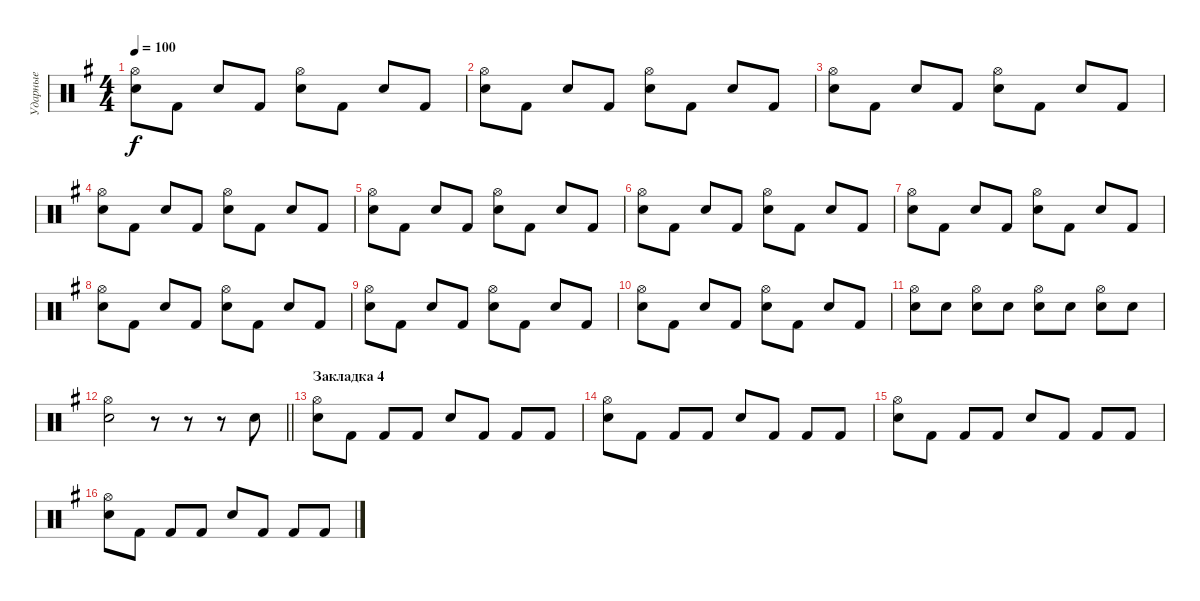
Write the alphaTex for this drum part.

\track ("Ударные" "Ударные") {instrument percussion}
\staff {score}
\articulation defaults
\ts (4 4)
\tempo 100
\clef neutral
\ks g
("Hi-Hat (open)" "Snare (hit) 2").8{dy f} "Kick (hit) 2".8 "Electric Snare (hit)".8 "Kick (hit) 2".8 ("Hi-Hat (open)" "Snare (hit) 2").8 "Kick (hit) 2".8 "Electric Snare (hit)".8 "Kick (hit) 2".8 |
("Hi-Hat (open)" "Snare (hit) 2").8 "Kick (hit) 2".8 "Electric Snare (hit)".8 "Kick (hit) 2".8 ("Hi-Hat (open)" "Snare (hit) 2").8 "Kick (hit) 2".8 "Electric Snare (hit)".8 "Kick (hit) 2".8 |
("Hi-Hat (open)" "Snare (hit) 2").8 "Kick (hit) 2".8 "Electric Snare (hit)".8 "Kick (hit) 2".8 ("Hi-Hat (open)" "Snare (hit) 2").8 "Kick (hit) 2".8 "Electric Snare (hit)".8 "Kick (hit) 2".8 |
("Hi-Hat (open)" "Snare (hit) 2").8 "Kick (hit) 2".8 "Electric Snare (hit)".8 "Kick (hit) 2".8 ("Hi-Hat (open)" "Snare (hit) 2").8 "Kick (hit) 2".8 "Electric Snare (hit)".8 "Kick (hit) 2".8 |
("Hi-Hat (open)" "Snare (hit) 2").8 "Kick (hit) 2".8 "Electric Snare (hit)".8 "Kick (hit) 2".8 ("Hi-Hat (open)" "Snare (hit) 2").8 "Kick (hit) 2".8 "Electric Snare (hit)".8 "Kick (hit) 2".8 |
("Hi-Hat (open)" "Snare (hit) 2").8 "Kick (hit) 2".8 "Electric Snare (hit)".8 "Kick (hit) 2".8 ("Hi-Hat (open)" "Snare (hit) 2").8 "Kick (hit) 2".8 "Electric Snare (hit)".8 "Kick (hit) 2".8 |
("Hi-Hat (open)" "Snare (hit) 2").8 "Kick (hit) 2".8 "Electric Snare (hit)".8 "Kick (hit) 2".8 ("Hi-Hat (open)" "Snare (hit) 2").8 "Kick (hit) 2".8 "Electric Snare (hit)".8 "Kick (hit) 2".8 |
("Hi-Hat (open)" "Snare (hit) 2").8 "Kick (hit) 2".8 "Electric Snare (hit)".8 "Kick (hit) 2".8 ("Hi-Hat (open)" "Snare (hit) 2").8 "Kick (hit) 2".8 "Electric Snare (hit)".8 "Kick (hit) 2".8 |
("Hi-Hat (open)" "Snare (hit) 2").8 "Kick (hit) 2".8 "Electric Snare (hit)".8 "Kick (hit) 2".8 ("Hi-Hat (open)" "Snare (hit) 2").8 "Kick (hit) 2".8 "Electric Snare (hit)".8 "Kick (hit) 2".8 |
("Hi-Hat (open)" "Snare (hit) 2").8 "Kick (hit) 2".8 "Electric Snare (hit)".8 "Kick (hit) 2".8 ("Hi-Hat (open)" "Snare (hit) 2").8 "Kick (hit) 2".8 "Electric Snare (hit)".8 "Kick (hit) 2".8 |
("Hi-Hat (open)" "Snare (hit) 2").8 "Snare (hit) 2".8 ("Hi-Hat (open)" "Snare (hit) 2").8 "Snare (hit) 2".8 ("Hi-Hat (open)" "Snare (hit) 2").8 "Snare (hit) 2".8 ("Hi-Hat (open)" "Snare (hit) 2").8 "Snare (hit) 2".8 |
\barLineRight lightlight
("Hi-Hat (open)" "Snare (hit) 2").2 r.8 r.8 r.8 "Snare (hit) 2".8 |
\section ("" "Закладка 4")
("Hi-Hat (open)" "Snare (hit) 2").8 "Kick (hit) 2".8 "Kick (hit) 2".8 "Kick (hit) 2".8 "Snare (hit) 2".8 "Kick (hit) 2".8 "Kick (hit) 2".8 "Kick (hit) 2".8 |
("Hi-Hat (open)" "Snare (hit) 2").8 "Kick (hit) 2".8 "Kick (hit) 2".8 "Kick (hit) 2".8 "Snare (hit) 2".8 "Kick (hit) 2".8 "Kick (hit) 2".8 "Kick (hit) 2".8 |
("Hi-Hat (open)" "Snare (hit) 2").8 "Kick (hit) 2".8 "Kick (hit) 2".8 "Kick (hit) 2".8 "Snare (hit) 2".8 "Kick (hit) 2".8 "Kick (hit) 2".8 "Kick (hit) 2".8 |
("Hi-Hat (open)" "Snare (hit) 2").8 "Kick (hit) 2".8 "Kick (hit) 2".8 "Kick (hit) 2".8 "Snare (hit) 2".8 "Kick (hit) 2".8 "Kick (hit) 2".8 "Kick (hit) 2".8
